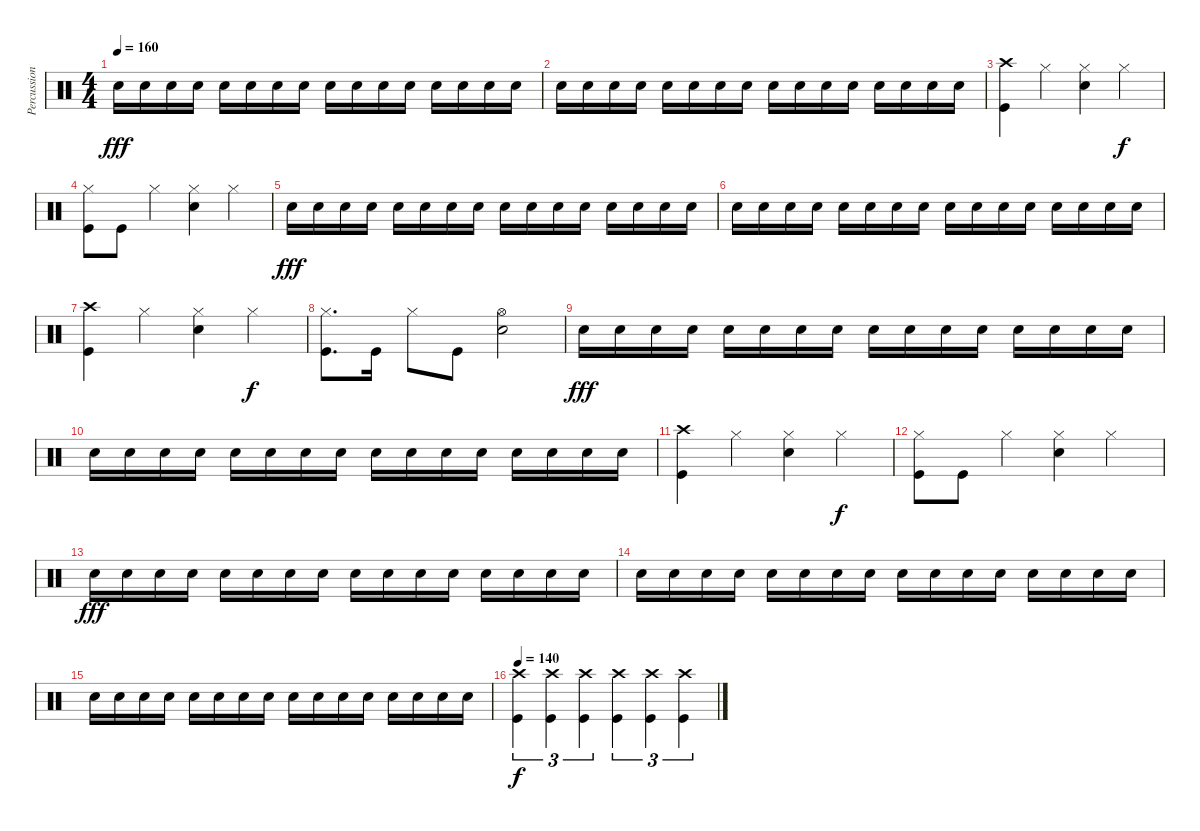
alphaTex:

\track ("Percussions" "Percussion") {instrument percussion}
\staff {score}
\articulation defaults
\ts (4 4)
\tempo 160
\clef neutral
\ks c "Snare (hit) 2".16{dy fff} "Snare (hit) 2".16 "Snare (hit) 2".16 "Snare (hit) 2".16 "Snare (hit) 2".16 "Snare (hit) 2".16 "Snare (hit) 2".16 "Snare (hit) 2".16 "Snare (hit) 2".16 "Snare (hit) 2".16 "Snare (hit) 2".16 "Snare (hit) 2".16 "Snare (hit) 2".16 "Snare (hit) 2".16 "Snare (hit) 2".16 "Snare (hit) 2".16
|
"Snare (hit) 2".16 "Snare (hit) 2".16 "Snare (hit) 2".16 "Snare (hit) 2".16 "Snare (hit) 2".16 "Snare (hit) 2".16 "Snare (hit) 2".16 "Snare (hit) 2".16 "Snare (hit) 2".16 "Snare (hit) 2".16 "Snare (hit) 2".16 "Snare (hit) 2".16 "Snare (hit) 2".16 "Snare (hit) 2".16 "Snare (hit) 2".16 "Snare (hit) 2".16 |
("Crash high (hit)" "Kick (hit)").4 "Hi-Hat (closed)".4 ("Snare (hit) 2" "Hi-Hat (closed)").4 "Hi-Hat (closed)".4{dy f} |
("Hi-Hat (closed)" "Kick (hit)").8 "Kick (hit)".8 "Hi-Hat (closed)".4 ("Snare (hit) 2" "Hi-Hat (closed)").4 "Hi-Hat (closed)".4 |
"Snare (hit) 2".16{dy fff} "Snare (hit) 2".16 "Snare (hit) 2".16 "Snare (hit) 2".16 "Snare (hit) 2".16 "Snare (hit) 2".16 "Snare (hit) 2".16 "Snare (hit) 2".16 "Snare (hit) 2".16 "Snare (hit) 2".16 "Snare (hit) 2".16 "Snare (hit) 2".16 "Snare (hit) 2".16 "Snare (hit) 2".16 "Snare (hit) 2".16 "Snare (hit) 2".16 |
"Snare (hit) 2".16 "Snare (hit) 2".16 "Snare (hit) 2".16 "Snare (hit) 2".16 "Snare (hit) 2".16 "Snare (hit) 2".16 "Snare (hit) 2".16 "Snare (hit) 2".16 "Snare (hit) 2".16 "Snare (hit) 2".16 "Snare (hit) 2".16 "Snare (hit) 2".16 "Snare (hit) 2".16 "Snare (hit) 2".16 "Snare (hit) 2".16 "Snare (hit) 2".16 |
("Crash high (hit)" "Kick (hit)").4 "Hi-Hat (closed)".4 ("Snare (hit) 2" "Hi-Hat (closed)").4 "Hi-Hat (closed)".4{dy f} |
("Kick (hit)" "Hi-Hat (closed)").8{d} "Kick (hit)".16 "Hi-Hat (closed)".8 "Kick (hit)".8 ("Snare (hit) 2" "Hi-Hat (open)").2 |
"Snare (hit) 2".16{dy fff} "Snare (hit) 2".16 "Snare (hit) 2".16 "Snare (hit) 2".16 "Snare (hit) 2".16 "Snare (hit) 2".16 "Snare (hit) 2".16 "Snare (hit) 2".16 "Snare (hit) 2".16 "Snare (hit) 2".16 "Snare (hit) 2".16 "Snare (hit) 2".16 "Snare (hit) 2".16 "Snare (hit) 2".16 "Snare (hit) 2".16 "Snare (hit) 2".16 |
"Snare (hit) 2".16 "Snare (hit) 2".16 "Snare (hit) 2".16 "Snare (hit) 2".16 "Snare (hit) 2".16 "Snare (hit) 2".16 "Snare (hit) 2".16 "Snare (hit) 2".16 "Snare (hit) 2".16 "Snare (hit) 2".16 "Snare (hit) 2".16 "Snare (hit) 2".16 "Snare (hit) 2".16 "Snare (hit) 2".16 "Snare (hit) 2".16 "Snare (hit) 2".16 |
("Crash high (hit)" "Kick (hit)").4 "Hi-Hat (closed)".4 ("Snare (hit) 2" "Hi-Hat (closed)").4 "Hi-Hat (closed)".4{dy f} |
("Hi-Hat (closed)" "Kick (hit)").8 "Kick (hit)".8 "Hi-Hat (closed)".4 ("Snare (hit) 2" "Hi-Hat (closed)").4 "Hi-Hat (closed)".4 |
"Snare (hit) 2".16{dy fff} "Snare (hit) 2".16 "Snare (hit) 2".16 "Snare (hit) 2".16 "Snare (hit) 2".16 "Snare (hit) 2".16 "Snare (hit) 2".16 "Snare (hit) 2".16 "Snare (hit) 2".16 "Snare (hit) 2".16 "Snare (hit) 2".16 "Snare (hit) 2".16 "Snare (hit) 2".16 "Snare (hit) 2".16 "Snare (hit) 2".16 "Snare (hit) 2".16 |
"Snare (hit) 2".16 "Snare (hit) 2".16 "Snare (hit) 2".16 "Snare (hit) 2".16 "Snare (hit) 2".16 "Snare (hit) 2".16 "Snare (hit) 2".16 "Snare (hit) 2".16 "Snare (hit) 2".16 "Snare (hit) 2".16 "Snare (hit) 2".16 "Snare (hit) 2".16 "Snare (hit) 2".16 "Snare (hit) 2".16 "Snare (hit) 2".16 "Snare (hit) 2".16 |
"Snare (hit) 2".16 "Snare (hit) 2".16 "Snare (hit) 2".16 "Snare (hit) 2".16 "Snare (hit) 2".16 "Snare (hit) 2".16 "Snare (hit) 2".16 "Snare (hit) 2".16 "Snare (hit) 2".16 "Snare (hit) 2".16 "Snare (hit) 2".16 "Snare (hit) 2".16 "Snare (hit) 2".16 "Snare (hit) 2".16 "Snare (hit) 2".16 "Snare (hit) 2".16 |
\tempo 140
("Kick (hit)" "Crash high (hit)").4{tu (3 2) dy f} ("Kick (hit)" "Crash high (hit)").4{tu (3 2)} ("Kick (hit)" "Crash high (hit)").4{tu (3 2)} ("Kick (hit)" "Crash high (hit)").4{tu (3 2)} ("Kick (hit)" "Crash high (hit)").4{tu (3 2)} ("Kick (hit)" "Crash high (hit)").4{tu (3 2)}
